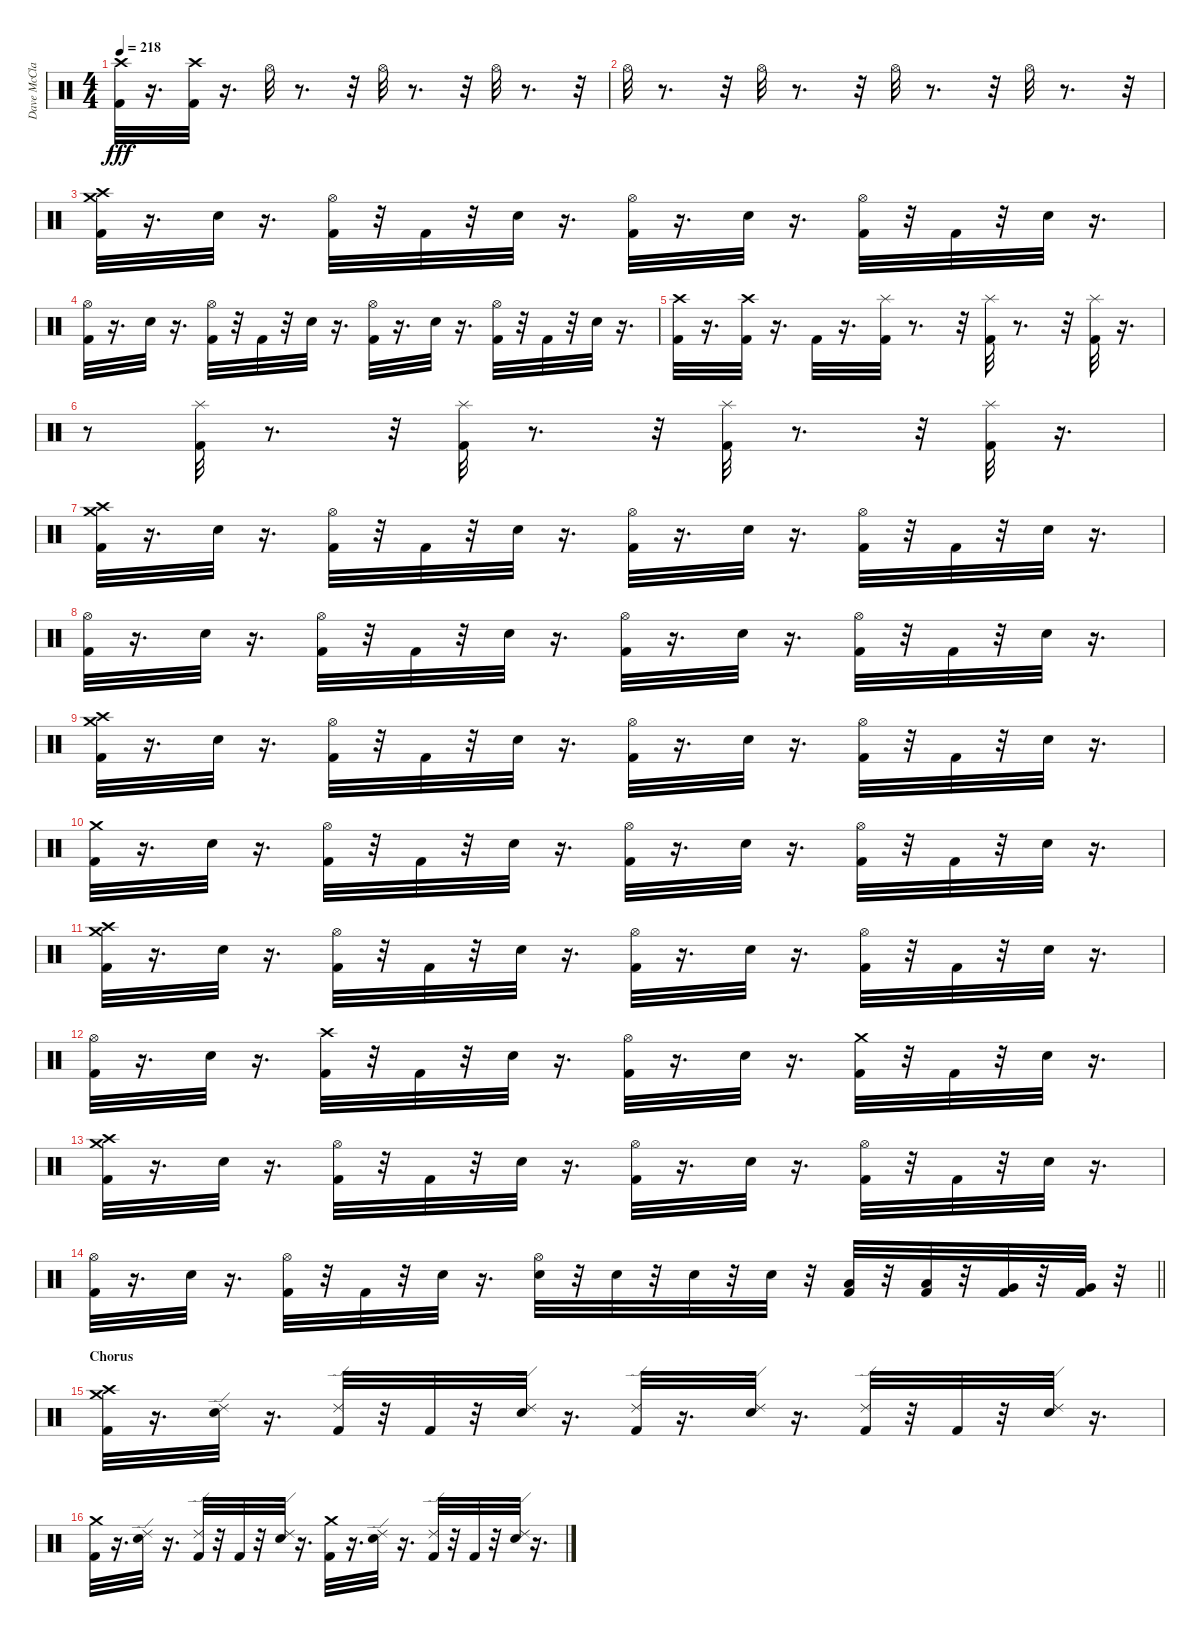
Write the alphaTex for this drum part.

\track ("Dave McClain" "Dave McCla") {instrument percussion}
\staff {score}
\articulation defaults
\ts (4 4)
\tempo 218
\clef neutral
\ks c
("Crash high (hit)" "Kick (hit) 2").32{dy fff} r.16{d} ("Crash high (hit)" "Kick (hit) 2").32 r.16{d} "Hi-Hat (open)".32 r.8{d} r.32 "Hi-Hat (open)".32 r.8{d} r.32 "Hi-Hat (open)".32 r.8{d} r.32 |
"Hi-Hat (open)".32 r.8{d} r.32 "Hi-Hat (open)".32 r.8{d} r.32 "Hi-Hat (open)".32 r.8{d} r.32 "Hi-Hat (open)".32 r.8{d} r.32 |
("Crash medium (hit)" "Crash high (hit)" "Kick (hit) 2").32 r.16{d} "Snare (hit) 2".32 r.16{d} ("Kick (hit) 2" "Hi-Hat (open)").32 r.32 "Kick (hit) 2".32 r.32 "Snare (hit) 2".32 r.16{d} ("Hi-Hat (open)" "Kick (hit) 2").32 r.16{d} "Snare (hit) 2".32 r.16{d} ("Hi-Hat (open)" "Kick (hit) 2").32 r.32 "Kick (hit) 2".32 r.32 "Snare (hit) 2".32 r.16{d} |
("Hi-Hat (open)" "Kick (hit) 2").32 r.16{d} "Snare (hit) 2".32 r.16{d} ("Hi-Hat (open)" "Kick (hit) 2").32 r.32 "Kick (hit) 2".32 r.32 "Snare (hit) 2".32 r.16{d} ("Hi-Hat (open)" "Kick (hit) 2").32 r.16{d} "Snare (hit) 2".32 r.16{d} ("Hi-Hat (open)" "Kick (hit) 2").32 r.32 "Kick (hit) 2".32 r.32 "Snare (hit) 2".32 r.16{d} |
("Crash high (hit)" "Kick (hit) 2").32 r.16{d} ("Crash high (hit)" "Kick (hit) 2").32 r.16{d} "Kick (hit) 2".32 r.16{d} ("Kick (hit) 2" "Splash (hit)").32 r.8{d} r.32 ("Kick (hit) 2" "Splash (hit)").32 r.8{d} r.32 ("Kick (hit) 2" "Splash (hit)").32 r.16{d} |
r.8 ("Kick (hit) 2" "Splash (hit)").32 r.8{d} r.32 ("Kick (hit) 2" "Splash (hit)").32 r.8{d} r.32 ("Kick (hit) 2" "Splash (hit)").32 r.8{d} r.32 ("Splash (hit)" "Kick (hit) 2").32 r.16{d} |
("Crash medium (hit)" "Crash high (hit)" "Kick (hit) 2").32 r.16{d} "Snare (hit) 2".32 r.16{d} ("Kick (hit) 2" "Hi-Hat (open)").32 r.32 "Kick (hit) 2".32 r.32 "Snare (hit) 2".32 r.16{d} ("Hi-Hat (open)" "Kick (hit) 2").32 r.16{d} "Snare (hit) 2".32 r.16{d} ("Hi-Hat (open)" "Kick (hit) 2").32 r.32 "Kick (hit) 2".32 r.32 "Snare (hit) 2".32 r.16{d} |
("Hi-Hat (open)" "Kick (hit) 2").32 r.16{d} "Snare (hit) 2".32 r.16{d} ("Hi-Hat (open)" "Kick (hit) 2").32 r.32 "Kick (hit) 2".32 r.32 "Snare (hit) 2".32 r.16{d} ("Hi-Hat (open)" "Kick (hit) 2").32 r.16{d} "Snare (hit) 2".32 r.16{d} ("Hi-Hat (open)" "Kick (hit) 2").32 r.32 "Kick (hit) 2".32 r.32 "Snare (hit) 2".32 r.16{d} |
("Crash medium (hit)" "Crash high (hit)" "Kick (hit) 2").32 r.16{d} "Snare (hit) 2".32 r.16{d} ("Kick (hit) 2" "Hi-Hat (open)").32 r.32 "Kick (hit) 2".32 r.32 "Snare (hit) 2".32 r.16{d} ("Hi-Hat (open)" "Kick (hit) 2").32 r.16{d} "Snare (hit) 2".32 r.16{d} ("Hi-Hat (open)" "Kick (hit) 2").32 r.32 "Kick (hit) 2".32 r.32 "Snare (hit) 2".32 r.16{d} |
("Crash medium (hit)" "Kick (hit) 2").32 r.16{d} "Snare (hit) 2".32 r.16{d} ("Hi-Hat (open)" "Kick (hit) 2").32 r.32 "Kick (hit) 2".32 r.32 "Snare (hit) 2".32 r.16{d} ("Hi-Hat (open)" "Kick (hit) 2").32 r.16{d} "Snare (hit) 2".32 r.16{d} ("Hi-Hat (open)" "Kick (hit) 2").32 r.32 "Kick (hit) 2".32 r.32 "Snare (hit) 2".32 r.16{d} |
("Crash medium (hit)" "Crash high (hit)" "Kick (hit) 2").32 r.16{d} "Snare (hit) 2".32 r.16{d} ("Kick (hit) 2" "Hi-Hat (open)").32 r.32 "Kick (hit) 2".32 r.32 "Snare (hit) 2".32 r.16{d} ("Hi-Hat (open)" "Kick (hit) 2").32 r.16{d} "Snare (hit) 2".32 r.16{d} ("Hi-Hat (open)" "Kick (hit) 2").32 r.32 "Kick (hit) 2".32 r.32 "Snare (hit) 2".32 r.16{d} |
("Hi-Hat (open)" "Kick (hit) 2").32 r.16{d} "Snare (hit) 2".32 r.16{d} ("Crash high (hit)" "Kick (hit) 2").32 r.32 "Kick (hit) 2".32 r.32 "Snare (hit) 2".32 r.16{d} ("Hi-Hat (open)" "Kick (hit) 2").32 r.16{d} "Snare (hit) 2".32 r.16{d} ("Crash medium (hit)" "Kick (hit) 2").32 r.32 "Kick (hit) 2".32 r.32 "Snare (hit) 2".32 r.16{d} |
("Crash medium (hit)" "Crash high (hit)" "Kick (hit) 2").32 r.16{d} "Snare (hit) 2".32 r.16{d} ("Kick (hit) 2" "Hi-Hat (open)").32 r.32 "Kick (hit) 2".32 r.32 "Snare (hit) 2".32 r.16{d} ("Hi-Hat (open)" "Kick (hit) 2").32 r.16{d} "Snare (hit) 2".32 r.16{d} ("Hi-Hat (open)" "Kick (hit) 2").32 r.32 "Kick (hit) 2".32 r.32 "Snare (hit) 2".32 r.16{d} |
\barLineRight lightlight
("Hi-Hat (open)" "Kick (hit) 2").32 r.16{d} "Snare (hit) 2".32 r.16{d} ("Hi-Hat (open)" "Kick (hit) 2").32 r.32 "Kick (hit) 2".32 r.32 "Snare (hit) 2".32 r.16{d} ("Snare (hit) 2" "Hi-Hat (open)").32 r.32 "Snare (hit) 2".32 r.32 "Snare (hit) 2".32 r.32 "Snare (hit) 2".32 r.32 ("Low Tom (hit)" "Kick (hit) 2").32 r.32 ("Low Tom (hit)" "Kick (hit) 2").32 r.32 ("Very Low Tom (hit)" "Kick (hit) 2").32 r.32 ("Very Low Tom (hit)" "Kick (hit) 2").32 r.32 |
\section ("" "Chorus")
("Crash medium (hit)" "Crash high (hit)" "Kick (hit) 2").32 r.16{d} ("Ride (edge) 2" "Snare (hit) 2").32 r.16{d} ("Ride (edge) 2" "Kick (hit) 2").32 r.32 "Kick (hit) 2".32 r.32 ("Ride (edge) 2" "Snare (hit) 2").32 r.16{d} ("Ride (edge) 2" "Kick (hit) 2").32 r.16{d} ("Ride (edge) 2" "Snare (hit) 2").32 r.16{d} ("Ride (edge) 2" "Kick (hit) 2").32 r.32 "Kick (hit) 2".32 r.32 ("Ride (edge) 2" "Snare (hit) 2").32 r.16{d} |
("Crash medium (hit)" "Kick (hit) 2").32 r.16{d} ("Ride (edge) 2" "Snare (hit) 2").32 r.16{d} ("Ride (edge) 2" "Kick (hit) 2").32 r.32 "Kick (hit) 2".32 r.32 ("Ride (edge) 2" "Snare (hit) 2").32 r.16{d} ("Crash medium (hit)" "Kick (hit) 2").32 r.16{d} ("Ride (edge) 2" "Snare (hit) 2").32 r.16{d} ("Ride (edge) 2" "Kick (hit) 2").32 r.32 "Kick (hit) 2".32 r.32 ("Ride (edge) 2" "Snare (hit) 2").32 r.16{d}
